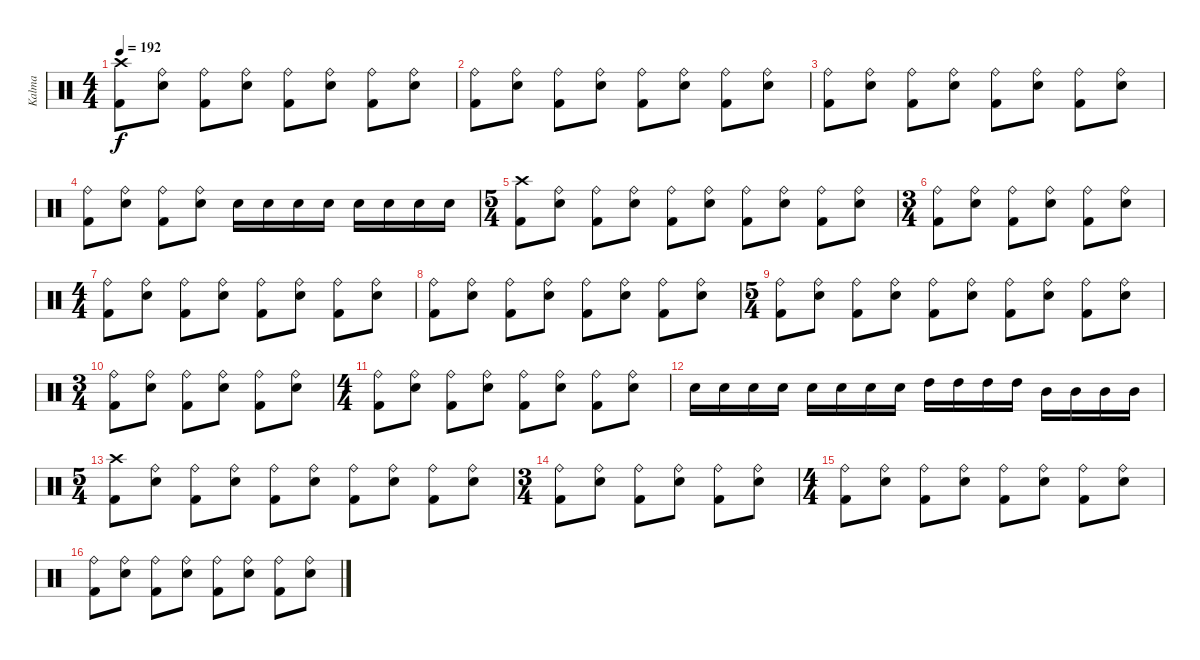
\track ("Kalma" "Kalma") {instrument percussion}
\staff {score}
\articulation defaults
\ts (4 4)
\tempo 192
\clef neutral
\ks c
("Crash high (hit)" "Kick (hit) 2").8{dy f} ("Ride (bell)" "Snare (hit) 2").8 ("Ride (bell)" "Kick (hit) 2").8 ("Ride (bell)" "Snare (hit) 2").8 ("Ride (bell)" "Kick (hit) 2").8 ("Ride (bell)" "Snare (hit) 2").8 ("Ride (bell)" "Kick (hit) 2").8 ("Ride (bell)" "Snare (hit) 2").8 |
("Ride (bell)" "Kick (hit) 2").8 ("Ride (bell)" "Snare (hit) 2").8 ("Ride (bell)" "Kick (hit) 2").8 ("Ride (bell)" "Snare (hit) 2").8 ("Ride (bell)" "Kick (hit) 2").8 ("Ride (bell)" "Snare (hit) 2").8 ("Ride (bell)" "Kick (hit) 2").8 ("Ride (bell)" "Snare (hit) 2").8 |
("Ride (bell)" "Kick (hit) 2").8 ("Ride (bell)" "Snare (hit) 2").8 ("Ride (bell)" "Kick (hit) 2").8 ("Ride (bell)" "Snare (hit) 2").8 ("Ride (bell)" "Kick (hit) 2").8 ("Ride (bell)" "Snare (hit) 2").8 ("Ride (bell)" "Kick (hit) 2").8 ("Ride (bell)" "Snare (hit) 2").8 |
("Ride (bell)" "Kick (hit) 2").8 ("Ride (bell)" "Snare (hit) 2").8 ("Ride (bell)" "Kick (hit) 2").8 ("Ride (bell)" "Snare (hit) 2").8 "Snare (hit) 2".16 "Snare (hit) 2".16 "Snare (hit) 2".16 "Snare (hit) 2".16 "Snare (hit) 2".16 "Snare (hit) 2".16 "Snare (hit) 2".16 "Snare (hit) 2".16 |
\ts (5 4)
("Crash high (hit)" "Kick (hit) 2").8 ("Ride (bell)" "Snare (hit) 2").8 ("Ride (bell)" "Kick (hit) 2").8 ("Ride (bell)" "Snare (hit) 2").8 ("Ride (bell)" "Kick (hit) 2").8 ("Ride (bell)" "Snare (hit) 2").8 ("Ride (bell)" "Kick (hit) 2").8 ("Ride (bell)" "Snare (hit) 2").8 ("Ride (bell)" "Kick (hit) 2").8 ("Ride (bell)" "Snare (hit) 2").8 |
\ts (3 4)
("Ride (bell)" "Kick (hit) 2").8 ("Ride (bell)" "Snare (hit) 2").8 ("Ride (bell)" "Kick (hit) 2").8 ("Ride (bell)" "Snare (hit) 2").8 ("Ride (bell)" "Kick (hit) 2").8 ("Ride (bell)" "Snare (hit) 2").8 |
\ts (4 4)
("Ride (bell)" "Kick (hit) 2").8 ("Ride (bell)" "Snare (hit) 2").8 ("Ride (bell)" "Kick (hit) 2").8 ("Ride (bell)" "Snare (hit) 2").8 ("Ride (bell)" "Kick (hit) 2").8 ("Ride (bell)" "Snare (hit) 2").8 ("Ride (bell)" "Kick (hit) 2").8 ("Ride (bell)" "Snare (hit) 2").8 |
("Ride (bell)" "Kick (hit) 2").8 ("Ride (bell)" "Snare (hit) 2").8 ("Ride (bell)" "Kick (hit) 2").8 ("Ride (bell)" "Snare (hit) 2").8 ("Ride (bell)" "Kick (hit) 2").8 ("Ride (bell)" "Snare (hit) 2").8 ("Ride (bell)" "Kick (hit) 2").8 ("Ride (bell)" "Snare (hit) 2").8 |
\ts (5 4)
("Ride (bell)" "Kick (hit) 2").8 ("Ride (bell)" "Snare (hit) 2").8 ("Ride (bell)" "Kick (hit) 2").8 ("Ride (bell)" "Snare (hit) 2").8 ("Ride (bell)" "Kick (hit) 2").8 ("Ride (bell)" "Snare (hit) 2").8 ("Ride (bell)" "Kick (hit) 2").8 ("Ride (bell)" "Snare (hit) 2").8 ("Ride (bell)" "Kick (hit) 2").8 ("Ride (bell)" "Snare (hit) 2").8 |
\ts (3 4)
("Ride (bell)" "Kick (hit) 2").8 ("Ride (bell)" "Snare (hit) 2").8 ("Ride (bell)" "Kick (hit) 2").8 ("Ride (bell)" "Snare (hit) 2").8 ("Ride (bell)" "Kick (hit) 2").8 ("Ride (bell)" "Snare (hit) 2").8 |
\ts (4 4)
("Ride (bell)" "Kick (hit) 2").8 ("Ride (bell)" "Snare (hit) 2").8 ("Ride (bell)" "Kick (hit) 2").8 ("Ride (bell)" "Snare (hit) 2").8 ("Ride (bell)" "Kick (hit) 2").8 ("Ride (bell)" "Snare (hit) 2").8 ("Ride (bell)" "Kick (hit) 2").8 ("Ride (bell)" "Snare (hit) 2").8 |
"Snare (hit) 2".16 "Snare (hit) 2".16 "Snare (hit) 2".16 "Snare (hit) 2".16 "Snare (hit) 2".16 "Snare (hit) 2".16 "Snare (hit) 2".16 "Snare (hit) 2".16 "High Tom (hit)".16 "High Tom (hit)".16 "High Tom (hit)".16 "High Tom (hit)".16 "Mid Tom (hit)".16 "Mid Tom (hit)".16 "Mid Tom (hit)".16 "Mid Tom (hit)".16 |
\ts (5 4)
("Crash high (hit)" "Kick (hit) 2").8 ("Ride (bell)" "Snare (hit) 2").8 ("Ride (bell)" "Kick (hit) 2").8 ("Ride (bell)" "Snare (hit) 2").8 ("Ride (bell)" "Kick (hit) 2").8 ("Ride (bell)" "Snare (hit) 2").8 ("Ride (bell)" "Kick (hit) 2").8 ("Ride (bell)" "Snare (hit) 2").8 ("Ride (bell)" "Kick (hit) 2").8 ("Ride (bell)" "Snare (hit) 2").8 |
\ts (3 4)
("Ride (bell)" "Kick (hit) 2").8 ("Ride (bell)" "Snare (hit) 2").8 ("Ride (bell)" "Kick (hit) 2").8 ("Ride (bell)" "Snare (hit) 2").8 ("Ride (bell)" "Kick (hit) 2").8 ("Ride (bell)" "Snare (hit) 2").8 |
\ts (4 4)
("Ride (bell)" "Kick (hit) 2").8 ("Ride (bell)" "Snare (hit) 2").8 ("Ride (bell)" "Kick (hit) 2").8 ("Ride (bell)" "Snare (hit) 2").8 ("Ride (bell)" "Kick (hit) 2").8 ("Ride (bell)" "Snare (hit) 2").8 ("Ride (bell)" "Kick (hit) 2").8 ("Ride (bell)" "Snare (hit) 2").8 |
("Ride (bell)" "Kick (hit) 2").8 ("Ride (bell)" "Snare (hit) 2").8 ("Ride (bell)" "Kick (hit) 2").8 ("Ride (bell)" "Snare (hit) 2").8 ("Ride (bell)" "Kick (hit) 2").8 ("Ride (bell)" "Snare (hit) 2").8 ("Ride (bell)" "Kick (hit) 2").8 ("Ride (bell)" "Snare (hit) 2").8
